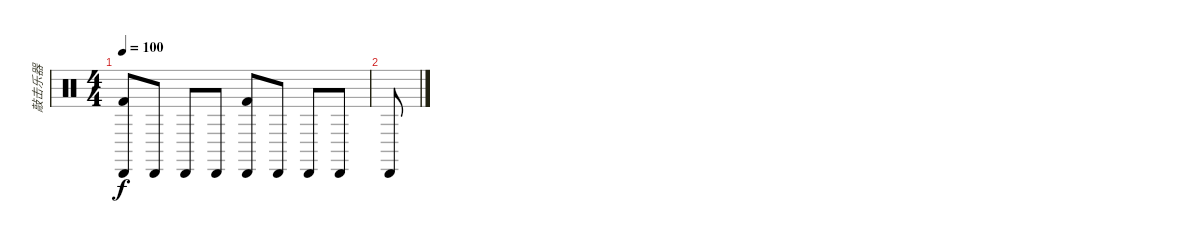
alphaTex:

\track ("敲击乐器" "敲击乐器") {instrument percussion}
\staff {score}
\articulation defaults
\ts (4 4)
\tempo 100
\clef neutral
\ks c
("Cabasa (hit)" "Kick (hit) 2").8{dy f} "Cabasa (hit)".8 "Cabasa (hit)".8 "Cabasa (hit)".8 ("Cabasa (hit)" "Kick (hit) 2").8 "Cabasa (hit)".8 "Cabasa (hit)".8 "Cabasa (hit)".8 |
"Cabasa (hit)".8
